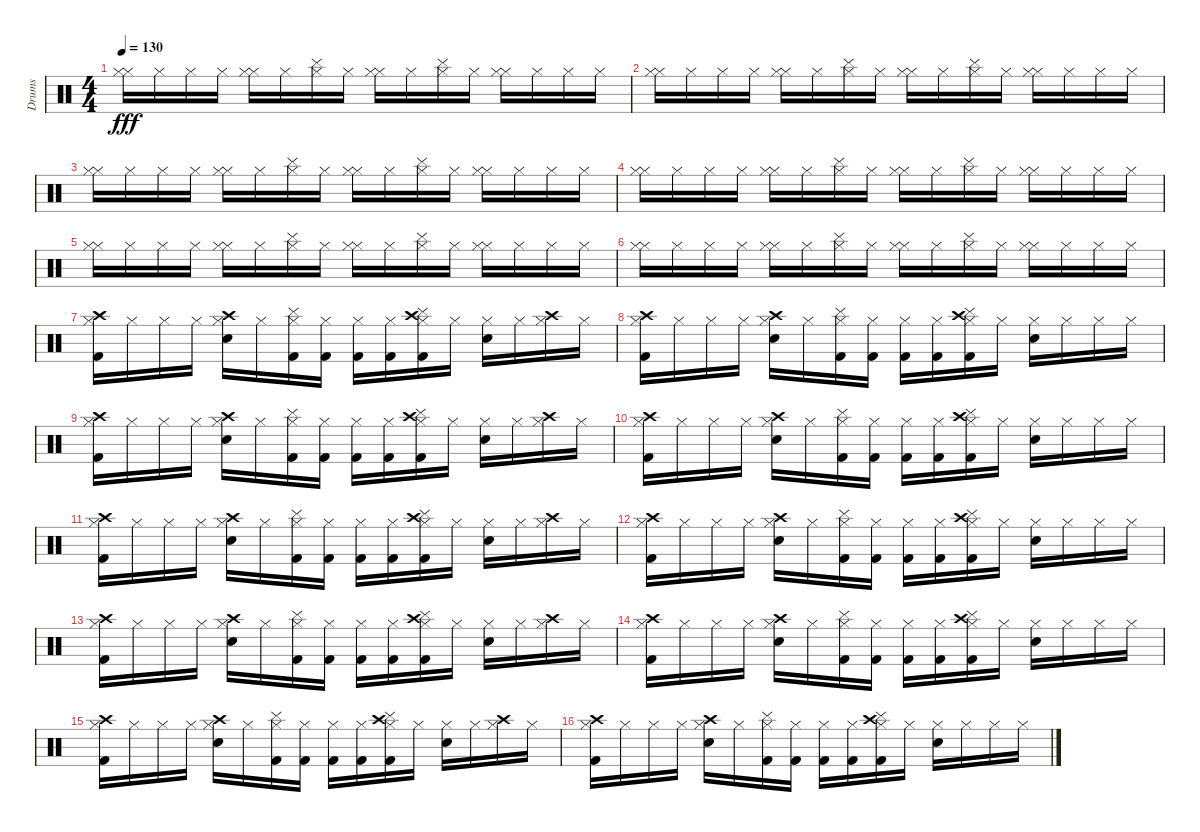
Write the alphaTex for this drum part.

\track ("Drums" "Drums") {instrument percussion}
\staff {score}
\articulation defaults
\ts (4 4)
\tempo 130
\clef neutral
\ks c
("Hi-Hat (closed)" "Hi-Hat (closed)").16{dy fff} "Hi-Hat (closed)".16 "Hi-Hat (closed)".16 "Hi-Hat (closed)".16 ("Hi-Hat (closed)" "Hi-Hat (closed)").16 "Hi-Hat (closed)".16 ("Cymbal (hit)" "Hi-Hat (closed)").16 "Hi-Hat (closed)".16 ("Hi-Hat (closed)" "Hi-Hat (closed)").16 "Hi-Hat (closed)".16 ("Cymbal (hit)" "Hi-Hat (closed)").16 "Hi-Hat (closed)".16 ("Hi-Hat (closed)" "Hi-Hat (closed)").16 "Hi-Hat (closed)".16 "Hi-Hat (closed)".16 "Hi-Hat (closed)".16 |
("Hi-Hat (closed)" "Hi-Hat (closed)").16 "Hi-Hat (closed)".16 "Hi-Hat (closed)".16 "Hi-Hat (closed)".16 ("Hi-Hat (closed)" "Hi-Hat (closed)").16 "Hi-Hat (closed)".16 ("Cymbal (hit)" "Hi-Hat (closed)").16 "Hi-Hat (closed)".16 ("Hi-Hat (closed)" "Hi-Hat (closed)").16 "Hi-Hat (closed)".16 ("Cymbal (hit)" "Hi-Hat (closed)").16 "Hi-Hat (closed)".16 ("Hi-Hat (closed)" "Hi-Hat (closed)").16 "Hi-Hat (closed)".16 "Hi-Hat (closed)".16 "Hi-Hat (closed)".16 |
("Hi-Hat (closed)" "Hi-Hat (closed)").16 "Hi-Hat (closed)".16 "Hi-Hat (closed)".16 "Hi-Hat (closed)".16 ("Hi-Hat (closed)" "Hi-Hat (closed)").16 "Hi-Hat (closed)".16 ("Cymbal (hit)" "Hi-Hat (closed)").16 "Hi-Hat (closed)".16 ("Hi-Hat (closed)" "Hi-Hat (closed)").16 "Hi-Hat (closed)".16 ("Cymbal (hit)" "Hi-Hat (closed)").16 "Hi-Hat (closed)".16 ("Hi-Hat (closed)" "Hi-Hat (closed)").16 "Hi-Hat (closed)".16 "Hi-Hat (closed)".16 "Hi-Hat (closed)".16 |
("Hi-Hat (closed)" "Hi-Hat (closed)").16 "Hi-Hat (closed)".16 "Hi-Hat (closed)".16 "Hi-Hat (closed)".16 ("Hi-Hat (closed)" "Hi-Hat (closed)").16 "Hi-Hat (closed)".16 ("Cymbal (hit)" "Hi-Hat (closed)").16 "Hi-Hat (closed)".16 ("Hi-Hat (closed)" "Hi-Hat (closed)").16 "Hi-Hat (closed)".16 ("Cymbal (hit)" "Hi-Hat (closed)").16 "Hi-Hat (closed)".16 ("Hi-Hat (closed)" "Hi-Hat (closed)").16 "Hi-Hat (closed)".16 "Hi-Hat (closed)".16 "Hi-Hat (closed)".16 |
("Hi-Hat (closed)" "Hi-Hat (closed)").16 "Hi-Hat (closed)".16 "Hi-Hat (closed)".16 "Hi-Hat (closed)".16 ("Hi-Hat (closed)" "Hi-Hat (closed)").16 "Hi-Hat (closed)".16 ("Cymbal (hit)" "Hi-Hat (closed)").16 "Hi-Hat (closed)".16 ("Hi-Hat (closed)" "Hi-Hat (closed)").16 "Hi-Hat (closed)".16 ("Cymbal (hit)" "Hi-Hat (closed)").16 "Hi-Hat (closed)".16 ("Hi-Hat (closed)" "Hi-Hat (closed)").16 "Hi-Hat (closed)".16 "Hi-Hat (closed)".16 "Hi-Hat (closed)".16 |
("Hi-Hat (closed)" "Hi-Hat (closed)").16 "Hi-Hat (closed)".16 "Hi-Hat (closed)".16 "Hi-Hat (closed)".16 ("Hi-Hat (closed)" "Hi-Hat (closed)").16 "Hi-Hat (closed)".16 ("Cymbal (hit)" "Hi-Hat (closed)").16 "Hi-Hat (closed)".16 ("Hi-Hat (closed)" "Hi-Hat (closed)").16 "Hi-Hat (closed)".16 ("Cymbal (hit)" "Hi-Hat (closed)").16 "Hi-Hat (closed)".16 ("Hi-Hat (closed)" "Hi-Hat (closed)").16 "Hi-Hat (closed)".16 "Hi-Hat (closed)".16 "Hi-Hat (closed)".16 |
("Crash high (hit)" "Hi-Hat (closed)" "Kick (hit) 2").16 "Hi-Hat (closed)".16 "Hi-Hat (closed)".16 "Hi-Hat (closed)".16 ("Crash high (hit)" "Hi-Hat (closed)" "Electric Snare (hit)").16 "Hi-Hat (closed)".16 ("Cymbal (hit)" "Hi-Hat (closed)" "Kick (hit) 2").16 ("Hi-Hat (closed)" "Kick (hit) 2").16 ("Hi-Hat (closed)" "Kick (hit) 2").16 ("Hi-Hat (closed)" "Kick (hit) 2").16 ("Crash high (hit)" "Cymbal (hit)" "Hi-Hat (closed)" "Kick (hit) 2").16 "Hi-Hat (closed)".16 ("Hi-Hat (closed)" "Electric Snare (hit)").16 "Hi-Hat (closed)".16 ("Crash high (hit)" "Hi-Hat (closed)").16 "Hi-Hat (closed)".16 |
("Crash high (hit)" "Hi-Hat (closed)" "Kick (hit) 2").16 "Hi-Hat (closed)".16 "Hi-Hat (closed)".16 "Hi-Hat (closed)".16 ("Crash high (hit)" "Hi-Hat (closed)" "Electric Snare (hit)").16 "Hi-Hat (closed)".16 ("Cymbal (hit)" "Hi-Hat (closed)" "Kick (hit) 2").16 ("Hi-Hat (closed)" "Kick (hit) 2").16 ("Hi-Hat (closed)" "Kick (hit) 2").16 ("Hi-Hat (closed)" "Kick (hit) 2").16 ("Crash high (hit)" "Cymbal (hit)" "Hi-Hat (closed)" "Kick (hit) 2").16 "Hi-Hat (closed)".16 ("Hi-Hat (closed)" "Electric Snare (hit)").16 "Hi-Hat (closed)".16 "Hi-Hat (closed)".16 "Hi-Hat (closed)".16 |
("Crash high (hit)" "Hi-Hat (closed)" "Kick (hit) 2").16 "Hi-Hat (closed)".16 "Hi-Hat (closed)".16 "Hi-Hat (closed)".16 ("Crash high (hit)" "Hi-Hat (closed)" "Electric Snare (hit)").16 "Hi-Hat (closed)".16 ("Cymbal (hit)" "Hi-Hat (closed)" "Kick (hit) 2").16 ("Hi-Hat (closed)" "Kick (hit) 2").16 ("Hi-Hat (closed)" "Kick (hit) 2").16 ("Hi-Hat (closed)" "Kick (hit) 2").16 ("Crash high (hit)" "Cymbal (hit)" "Hi-Hat (closed)" "Kick (hit) 2").16 "Hi-Hat (closed)".16 ("Hi-Hat (closed)" "Electric Snare (hit)").16 "Hi-Hat (closed)".16 ("Crash high (hit)" "Hi-Hat (closed)").16 "Hi-Hat (closed)".16 |
("Crash high (hit)" "Hi-Hat (closed)" "Kick (hit) 2").16 "Hi-Hat (closed)".16 "Hi-Hat (closed)".16 "Hi-Hat (closed)".16 ("Crash high (hit)" "Hi-Hat (closed)" "Electric Snare (hit)").16 "Hi-Hat (closed)".16 ("Cymbal (hit)" "Hi-Hat (closed)" "Kick (hit) 2").16 ("Hi-Hat (closed)" "Kick (hit) 2").16 ("Hi-Hat (closed)" "Kick (hit) 2").16 ("Hi-Hat (closed)" "Kick (hit) 2").16 ("Crash high (hit)" "Cymbal (hit)" "Hi-Hat (closed)" "Kick (hit) 2").16 "Hi-Hat (closed)".16 ("Hi-Hat (closed)" "Electric Snare (hit)").16 "Hi-Hat (closed)".16 "Hi-Hat (closed)".16 "Hi-Hat (closed)".16 |
("Crash high (hit)" "Hi-Hat (closed)" "Kick (hit) 2").16 "Hi-Hat (closed)".16 "Hi-Hat (closed)".16 "Hi-Hat (closed)".16 ("Crash high (hit)" "Hi-Hat (closed)" "Electric Snare (hit)").16 "Hi-Hat (closed)".16 ("Cymbal (hit)" "Hi-Hat (closed)" "Kick (hit) 2").16 ("Hi-Hat (closed)" "Kick (hit) 2").16 ("Hi-Hat (closed)" "Kick (hit) 2").16 ("Hi-Hat (closed)" "Kick (hit) 2").16 ("Crash high (hit)" "Cymbal (hit)" "Hi-Hat (closed)" "Kick (hit) 2").16 "Hi-Hat (closed)".16 ("Hi-Hat (closed)" "Electric Snare (hit)").16 "Hi-Hat (closed)".16 ("Crash high (hit)" "Hi-Hat (closed)").16 "Hi-Hat (closed)".16 |
("Crash high (hit)" "Hi-Hat (closed)" "Kick (hit) 2").16 "Hi-Hat (closed)".16 "Hi-Hat (closed)".16 "Hi-Hat (closed)".16 ("Crash high (hit)" "Hi-Hat (closed)" "Electric Snare (hit)").16 "Hi-Hat (closed)".16 ("Cymbal (hit)" "Hi-Hat (closed)" "Kick (hit) 2").16 ("Hi-Hat (closed)" "Kick (hit) 2").16 ("Hi-Hat (closed)" "Kick (hit) 2").16 ("Hi-Hat (closed)" "Kick (hit) 2").16 ("Crash high (hit)" "Cymbal (hit)" "Hi-Hat (closed)" "Kick (hit) 2").16 "Hi-Hat (closed)".16 ("Hi-Hat (closed)" "Electric Snare (hit)").16 "Hi-Hat (closed)".16 "Hi-Hat (closed)".16 "Hi-Hat (closed)".16 |
("Crash high (hit)" "Hi-Hat (closed)" "Kick (hit) 2").16 "Hi-Hat (closed)".16 "Hi-Hat (closed)".16 "Hi-Hat (closed)".16 ("Crash high (hit)" "Hi-Hat (closed)" "Electric Snare (hit)").16 "Hi-Hat (closed)".16 ("Cymbal (hit)" "Hi-Hat (closed)" "Kick (hit) 2").16 ("Hi-Hat (closed)" "Kick (hit) 2").16 ("Hi-Hat (closed)" "Kick (hit) 2").16 ("Hi-Hat (closed)" "Kick (hit) 2").16 ("Crash high (hit)" "Cymbal (hit)" "Hi-Hat (closed)" "Kick (hit) 2").16 "Hi-Hat (closed)".16 ("Hi-Hat (closed)" "Electric Snare (hit)").16 "Hi-Hat (closed)".16 ("Crash high (hit)" "Hi-Hat (closed)").16 "Hi-Hat (closed)".16 |
("Crash high (hit)" "Hi-Hat (closed)" "Kick (hit) 2").16 "Hi-Hat (closed)".16 "Hi-Hat (closed)".16 "Hi-Hat (closed)".16 ("Crash high (hit)" "Hi-Hat (closed)" "Electric Snare (hit)").16 "Hi-Hat (closed)".16 ("Cymbal (hit)" "Hi-Hat (closed)" "Kick (hit) 2").16 ("Hi-Hat (closed)" "Kick (hit) 2").16 ("Hi-Hat (closed)" "Kick (hit) 2").16 ("Hi-Hat (closed)" "Kick (hit) 2").16 ("Crash high (hit)" "Cymbal (hit)" "Hi-Hat (closed)" "Kick (hit) 2").16 "Hi-Hat (closed)".16 ("Hi-Hat (closed)" "Electric Snare (hit)").16 "Hi-Hat (closed)".16 "Hi-Hat (closed)".16 "Hi-Hat (closed)".16 |
("Crash high (hit)" "Hi-Hat (closed)" "Kick (hit) 2").16 "Hi-Hat (closed)".16 "Hi-Hat (closed)".16 "Hi-Hat (closed)".16 ("Crash high (hit)" "Hi-Hat (closed)" "Electric Snare (hit)").16 "Hi-Hat (closed)".16 ("Cymbal (hit)" "Hi-Hat (closed)" "Kick (hit) 2").16 ("Hi-Hat (closed)" "Kick (hit) 2").16 ("Hi-Hat (closed)" "Kick (hit) 2").16 ("Hi-Hat (closed)" "Kick (hit) 2").16 ("Crash high (hit)" "Cymbal (hit)" "Hi-Hat (closed)" "Kick (hit) 2").16 "Hi-Hat (closed)".16 ("Hi-Hat (closed)" "Electric Snare (hit)").16 "Hi-Hat (closed)".16 ("Crash high (hit)" "Hi-Hat (closed)").16 "Hi-Hat (closed)".16 |
("Crash high (hit)" "Hi-Hat (closed)" "Kick (hit) 2").16 "Hi-Hat (closed)".16 "Hi-Hat (closed)".16 "Hi-Hat (closed)".16 ("Crash high (hit)" "Hi-Hat (closed)" "Electric Snare (hit)").16 "Hi-Hat (closed)".16 ("Cymbal (hit)" "Hi-Hat (closed)" "Kick (hit) 2").16 ("Hi-Hat (closed)" "Kick (hit) 2").16 ("Hi-Hat (closed)" "Kick (hit) 2").16 ("Hi-Hat (closed)" "Kick (hit) 2").16 ("Crash high (hit)" "Cymbal (hit)" "Hi-Hat (closed)" "Kick (hit) 2").16 "Hi-Hat (closed)".16 ("Hi-Hat (closed)" "Electric Snare (hit)").16 "Hi-Hat (closed)".16 "Hi-Hat (closed)".16 "Hi-Hat (closed)".16
